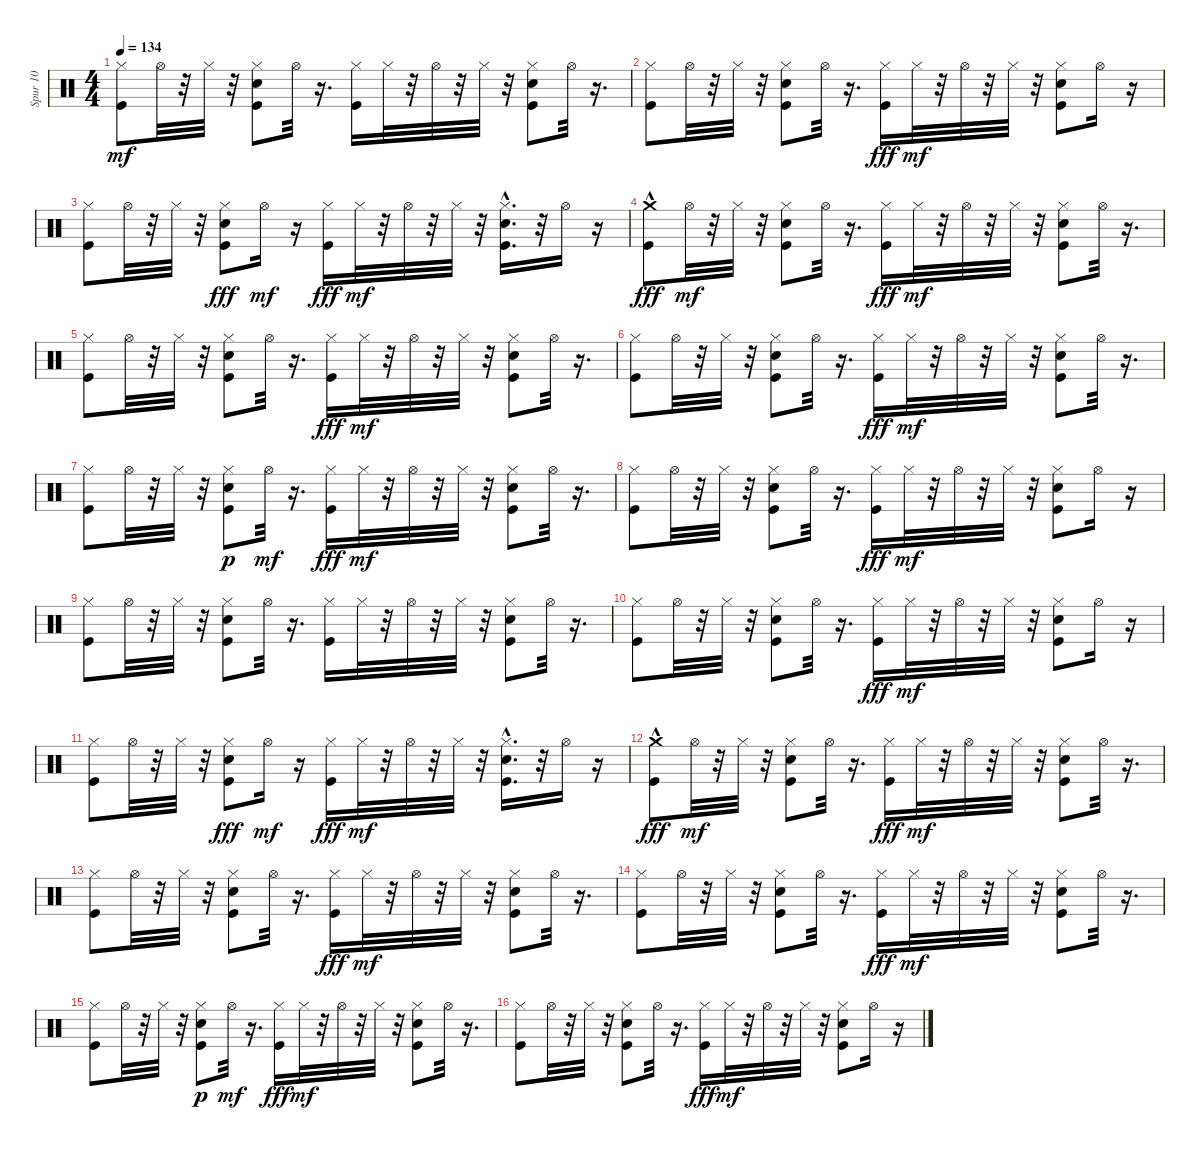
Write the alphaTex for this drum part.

\track ("Spur 10" "Spur 10") {instrument percussion}
\staff {score}
\articulation defaults
\ts (4 4)
\tempo 134
\clef neutral
\ks c
("Kick (hit)" "Hi-Hat (closed)").8{dy mf} "Hi-Hat (open)".32 r.32 "Hi-Hat (closed)".32 r.32 ("Snare (hit) 2" "Kick (hit)" "Hi-Hat (closed)").8 "Hi-Hat (open)".32 r.16{d} ("Kick (hit)" "Hi-Hat (closed)").16 "Hi-Hat (closed)".32 r.32 "Hi-Hat (open)".32 r.32 "Hi-Hat (closed)".32 r.32 ("Snare (hit) 2" "Kick (hit)" "Hi-Hat (closed)").8 "Hi-Hat (open)".32 r.16{d} |
("Kick (hit)" "Hi-Hat (closed)").8 "Hi-Hat (open)".32 r.32 "Hi-Hat (closed)".32 r.32 ("Snare (hit) 2" "Kick (hit)" "Hi-Hat (closed)").8 "Hi-Hat (open)".32 r.16{d} ("Hi-Hat (closed)" "Kick (hit)").16{dy fff} "Hi-Hat (closed)".32{dy mf} r.32 "Hi-Hat (open)".32 r.32 "Hi-Hat (closed)".32 r.32 ("Snare (hit) 2" "Kick (hit)" "Hi-Hat (closed)").8 "Hi-Hat (open)".16 r.16 |
("Kick (hit)" "Hi-Hat (closed)").8 "Hi-Hat (open)".32 r.32 "Hi-Hat (closed)".32 r.32 ("Hi-Hat (closed)" "Snare (hit) 2" "Kick (hit)").8{dy fff} "Hi-Hat (open)".16{dy mf} r.16 ("Hi-Hat (closed)" "Kick (hit)").16{dy fff} "Hi-Hat (closed)".32{dy mf} r.32 "Hi-Hat (open)".32 r.32 "Hi-Hat (closed)".32 r.32 ("Snare (hit) 2" "Kick (hit)"{hac} "Hi-Hat (closed)").16{d} r.32 "Hi-Hat (open)".16 r.16 |
("Crash medium (hit)"{hac} "Kick (hit)").8{dy fff} "Hi-Hat (open)".32{dy mf} r.32 "Hi-Hat (closed)".32 r.32 ("Snare (hit) 2" "Kick (hit)" "Hi-Hat (closed)").8 "Hi-Hat (open)".32 r.16{d} ("Hi-Hat (closed)" "Kick (hit)").16{dy fff} "Hi-Hat (closed)".32{dy mf} r.32 "Hi-Hat (open)".32 r.32 "Hi-Hat (closed)".32 r.32 ("Snare (hit) 2" "Kick (hit)" "Hi-Hat (closed)").8 "Hi-Hat (open)".32 r.16{d} |
("Kick (hit)" "Hi-Hat (closed)").8 "Hi-Hat (open)".32 r.32 "Hi-Hat (closed)".32 r.32 ("Snare (hit) 2" "Kick (hit)" "Hi-Hat (closed)").8 "Hi-Hat (open)".32 r.16{d} ("Hi-Hat (closed)" "Kick (hit)").16{dy fff} "Hi-Hat (closed)".32{dy mf} r.32 "Hi-Hat (open)".32 r.32 "Hi-Hat (closed)".32 r.32 ("Kick (hit)" "Snare (hit) 2" "Hi-Hat (closed)").8 "Hi-Hat (open)".32 r.16{d} |
("Kick (hit)" "Hi-Hat (closed)").8 "Hi-Hat (open)".32 r.32 "Hi-Hat (closed)".32 r.32 ("Kick (hit)" "Snare (hit) 2" "Hi-Hat (closed)").8 "Hi-Hat (open)".32 r.16{d} ("Hi-Hat (closed)" "Kick (hit)").16{dy fff} "Hi-Hat (closed)".32{dy mf} r.32 "Hi-Hat (open)".32 r.32 "Hi-Hat (closed)".32 r.32 ("Snare (hit) 2" "Kick (hit)" "Hi-Hat (closed)").8 "Hi-Hat (open)".32 r.16{d} |
("Kick (hit)" "Hi-Hat (closed)").8 "Hi-Hat (open)".32 r.32 "Hi-Hat (closed)".32 r.32 ("Hi-Hat (closed)" "Kick (hit)" "Snare (hit) 2").8{dy p} "Hi-Hat (open)".32{dy mf} r.16{d} ("Hi-Hat (closed)" "Kick (hit)").16{dy fff} "Hi-Hat (closed)".32{dy mf} r.32 "Hi-Hat (open)".32 r.32 "Hi-Hat (closed)".32 r.32 ("Kick (hit)" "Snare (hit) 2" "Hi-Hat (closed)").8 "Hi-Hat (open)".32 r.16{d} |
("Kick (hit)" "Hi-Hat (closed)").8 "Hi-Hat (open)".32 r.32 "Hi-Hat (closed)".32 r.32 ("Snare (hit) 2" "Kick (hit)" "Hi-Hat (closed)").8 "Hi-Hat (open)".32 r.16{d} ("Hi-Hat (closed)" "Kick (hit)").16{dy fff} "Hi-Hat (closed)".32{dy mf} r.32 "Hi-Hat (open)".32 r.32 "Hi-Hat (closed)".32 r.32 ("Snare (hit) 2" "Kick (hit)" "Hi-Hat (closed)").8 "Hi-Hat (open)".16 r.16 |
("Kick (hit)" "Hi-Hat (closed)").8 "Hi-Hat (open)".32 r.32 "Hi-Hat (closed)".32 r.32 ("Snare (hit) 2" "Kick (hit)" "Hi-Hat (closed)").8 "Hi-Hat (open)".32 r.16{d} ("Kick (hit)" "Hi-Hat (closed)").16 "Hi-Hat (closed)".32 r.32 "Hi-Hat (open)".32 r.32 "Hi-Hat (closed)".32 r.32 ("Snare (hit) 2" "Kick (hit)" "Hi-Hat (closed)").8 "Hi-Hat (open)".32 r.16{d} |
("Kick (hit)" "Hi-Hat (closed)").8 "Hi-Hat (open)".32 r.32 "Hi-Hat (closed)".32 r.32 ("Snare (hit) 2" "Kick (hit)" "Hi-Hat (closed)").8 "Hi-Hat (open)".32 r.16{d} ("Hi-Hat (closed)" "Kick (hit)").16{dy fff} "Hi-Hat (closed)".32{dy mf} r.32 "Hi-Hat (open)".32 r.32 "Hi-Hat (closed)".32 r.32 ("Snare (hit) 2" "Kick (hit)" "Hi-Hat (closed)").8 "Hi-Hat (open)".16 r.16 |
("Kick (hit)" "Hi-Hat (closed)").8 "Hi-Hat (open)".32 r.32 "Hi-Hat (closed)".32 r.32 ("Hi-Hat (closed)" "Snare (hit) 2" "Kick (hit)").8{dy fff} "Hi-Hat (open)".16{dy mf} r.16 ("Hi-Hat (closed)" "Kick (hit)").16{dy fff} "Hi-Hat (closed)".32{dy mf} r.32 "Hi-Hat (open)".32 r.32 "Hi-Hat (closed)".32 r.32 ("Snare (hit) 2" "Kick (hit)"{hac} "Hi-Hat (closed)").16{d} r.32 "Hi-Hat (open)".16 r.16 |
("Crash medium (hit)"{hac} "Kick (hit)").8{dy fff} "Hi-Hat (open)".32{dy mf} r.32 "Hi-Hat (closed)".32 r.32 ("Snare (hit) 2" "Kick (hit)" "Hi-Hat (closed)").8 "Hi-Hat (open)".32 r.16{d} ("Hi-Hat (closed)" "Kick (hit)").16{dy fff} "Hi-Hat (closed)".32{dy mf} r.32 "Hi-Hat (open)".32 r.32 "Hi-Hat (closed)".32 r.32 ("Snare (hit) 2" "Kick (hit)" "Hi-Hat (closed)").8 "Hi-Hat (open)".32 r.16{d} |
("Kick (hit)" "Hi-Hat (closed)").8 "Hi-Hat (open)".32 r.32 "Hi-Hat (closed)".32 r.32 ("Snare (hit) 2" "Kick (hit)" "Hi-Hat (closed)").8 "Hi-Hat (open)".32 r.16{d} ("Hi-Hat (closed)" "Kick (hit)").16{dy fff} "Hi-Hat (closed)".32{dy mf} r.32 "Hi-Hat (open)".32 r.32 "Hi-Hat (closed)".32 r.32 ("Kick (hit)" "Snare (hit) 2" "Hi-Hat (closed)").8 "Hi-Hat (open)".32 r.16{d} |
("Kick (hit)" "Hi-Hat (closed)").8 "Hi-Hat (open)".32 r.32 "Hi-Hat (closed)".32 r.32 ("Kick (hit)" "Snare (hit) 2" "Hi-Hat (closed)").8 "Hi-Hat (open)".32 r.16{d} ("Hi-Hat (closed)" "Kick (hit)").16{dy fff} "Hi-Hat (closed)".32{dy mf} r.32 "Hi-Hat (open)".32 r.32 "Hi-Hat (closed)".32 r.32 ("Snare (hit) 2" "Kick (hit)" "Hi-Hat (closed)").8 "Hi-Hat (open)".32 r.16{d} |
("Kick (hit)" "Hi-Hat (closed)").8 "Hi-Hat (open)".32 r.32 "Hi-Hat (closed)".32 r.32 ("Hi-Hat (closed)" "Kick (hit)" "Snare (hit) 2").8{dy p} "Hi-Hat (open)".32{dy mf} r.16{d} ("Hi-Hat (closed)" "Kick (hit)").16{dy fff} "Hi-Hat (closed)".32{dy mf} r.32 "Hi-Hat (open)".32 r.32 "Hi-Hat (closed)".32 r.32 ("Kick (hit)" "Snare (hit) 2" "Hi-Hat (closed)").8 "Hi-Hat (open)".32 r.16{d} |
("Kick (hit)" "Hi-Hat (closed)").8 "Hi-Hat (open)".32 r.32 "Hi-Hat (closed)".32 r.32 ("Snare (hit) 2" "Kick (hit)" "Hi-Hat (closed)").8 "Hi-Hat (open)".32 r.16{d} ("Hi-Hat (closed)" "Kick (hit)").16{dy fff} "Hi-Hat (closed)".32{dy mf} r.32 "Hi-Hat (open)".32 r.32 "Hi-Hat (closed)".32 r.32 ("Snare (hit) 2" "Kick (hit)" "Hi-Hat (closed)").8 "Hi-Hat (open)".16 r.16
